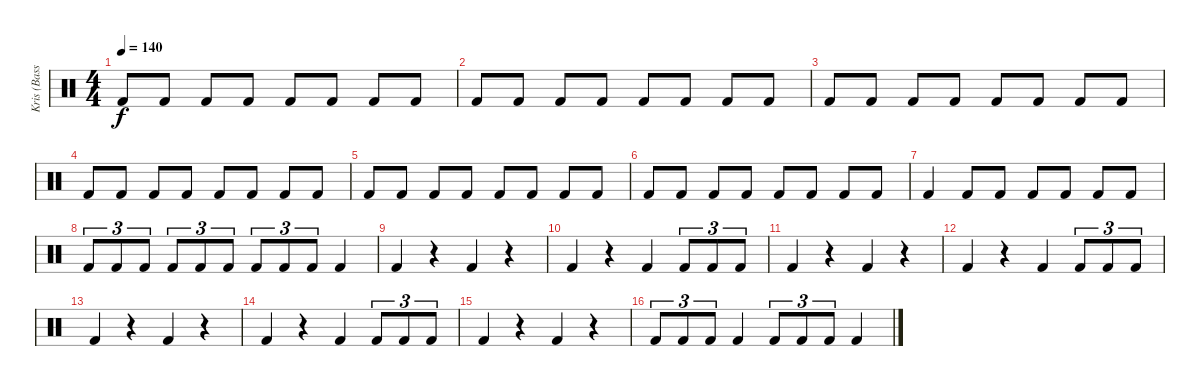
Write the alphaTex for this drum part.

\track ("Kris (Bass Drums)" "Kris (Bass") {instrument percussion}
\staff {score}
\articulation defaults
\ts (4 4)
\tempo 140
\clef neutral
\ks c "Kick (hit) 2".8{dy f} "Kick (hit) 2".8 "Kick (hit) 2".8 "Kick (hit) 2".8 "Kick (hit) 2".8 "Kick (hit) 2".8 "Kick (hit) 2".8 "Kick (hit) 2".8
|
"Kick (hit) 2".8 "Kick (hit) 2".8 "Kick (hit) 2".8 "Kick (hit) 2".8 "Kick (hit) 2".8 "Kick (hit) 2".8 "Kick (hit) 2".8 "Kick (hit) 2".8 |
"Kick (hit) 2".8 "Kick (hit) 2".8 "Kick (hit) 2".8 "Kick (hit) 2".8 "Kick (hit) 2".8 "Kick (hit) 2".8 "Kick (hit) 2".8 "Kick (hit) 2".8 |
"Kick (hit) 2".8 "Kick (hit) 2".8 "Kick (hit) 2".8 "Kick (hit) 2".8 "Kick (hit) 2".8 "Kick (hit) 2".8 "Kick (hit) 2".8 "Kick (hit) 2".8 |
"Kick (hit) 2".8 "Kick (hit) 2".8 "Kick (hit) 2".8 "Kick (hit) 2".8 "Kick (hit) 2".8 "Kick (hit) 2".8 "Kick (hit) 2".8 "Kick (hit) 2".8 |
"Kick (hit) 2".8 "Kick (hit) 2".8 "Kick (hit) 2".8 "Kick (hit) 2".8 "Kick (hit) 2".8 "Kick (hit) 2".8 "Kick (hit) 2".8 "Kick (hit) 2".8 |
"Kick (hit) 2".4 "Kick (hit) 2".8 "Kick (hit) 2".8 "Kick (hit) 2".8 "Kick (hit) 2".8 "Kick (hit) 2".8 "Kick (hit) 2".8 |
"Kick (hit) 2".8{tu (3 2)} "Kick (hit) 2".8{tu (3 2)} "Kick (hit) 2".8{tu (3 2)} "Kick (hit) 2".8{tu (3 2)} "Kick (hit) 2".8{tu (3 2)} "Kick (hit) 2".8{tu (3 2)} "Kick (hit) 2".8{tu (3 2)} "Kick (hit) 2".8{tu (3 2)} "Kick (hit) 2".8{tu (3 2)} "Kick (hit) 2".4 |
"Kick (hit) 2".4 r.4 "Kick (hit) 2".4 r.4 |
"Kick (hit) 2".4 r.4 "Kick (hit) 2".4 "Kick (hit) 2".8{tu (3 2)} "Kick (hit) 2".8{tu (3 2)} "Kick (hit) 2".8{tu (3 2)} |
"Kick (hit) 2".4 r.4 "Kick (hit) 2".4 r.4 |
"Kick (hit) 2".4 r.4 "Kick (hit) 2".4 "Kick (hit) 2".8{tu (3 2)} "Kick (hit) 2".8{tu (3 2)} "Kick (hit) 2".8{tu (3 2)} |
"Kick (hit) 2".4 r.4 "Kick (hit) 2".4 r.4 |
"Kick (hit) 2".4 r.4 "Kick (hit) 2".4 "Kick (hit) 2".8{tu (3 2)} "Kick (hit) 2".8{tu (3 2)} "Kick (hit) 2".8{tu (3 2)} |
"Kick (hit) 2".4 r.4 "Kick (hit) 2".4 r.4 |
"Kick (hit) 2".8{tu (3 2)} "Kick (hit) 2".8{tu (3 2)} "Kick (hit) 2".8{tu (3 2)} "Kick (hit) 2".4 "Kick (hit) 2".8{tu (3 2)} "Kick (hit) 2".8{tu (3 2)} "Kick (hit) 2".8{tu (3 2)} "Kick (hit) 2".4
